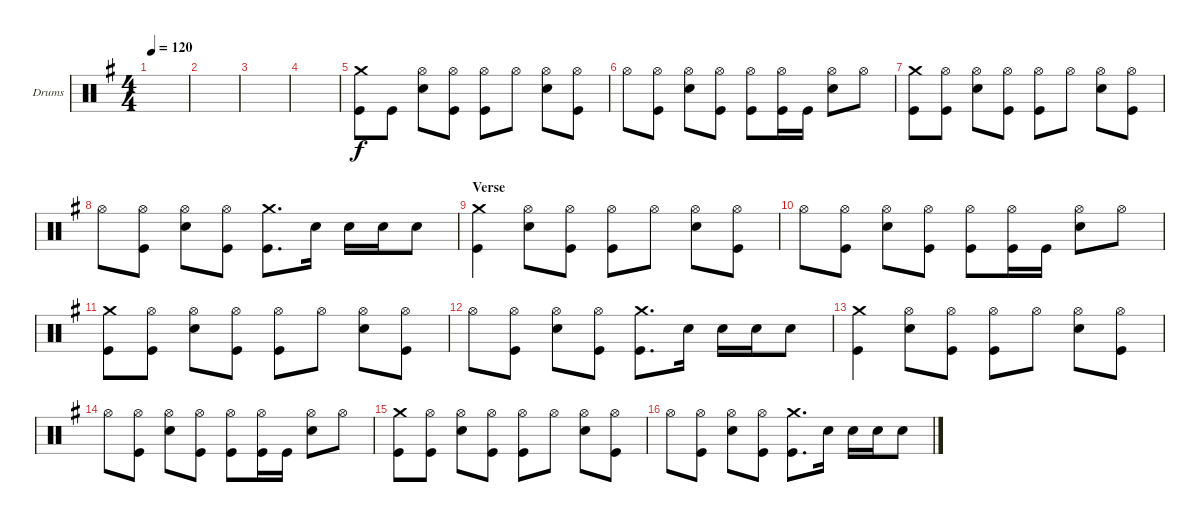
\defaultSystemsLayout 4
\bracketExtendMode groupsimilarinstruments
\firstSystemTrackNameOrientation horizontal
\otherSystemsTrackNameOrientation horizontal
\track ("Drumkit" "Drums") {instrument percussion}
\staff {score}
\articulation defaults
\ts (4 4)
\tempo 120
\clef neutral
\scale
1.07314
\ks g
|
\scale
0.92686 |
\scale
1.04288 |
\scale
0.957125 |
\scale
1.04288 ("Crash medium (hit)" "Kick (hit)").8 "Kick (hit)".8 ("Hi-Hat (open)" "Snare (hit) 2").8 ("Hi-Hat (open)" "Kick (hit)").8 ("Hi-Hat (open)" "Kick (hit)").8 "Hi-Hat (open)".8 ("Hi-Hat (open)" "Snare (hit) 2").8 ("Hi-Hat (open)" "Kick (hit)").8 |
\scale
0.957125 "Hi-Hat (open)".8 ("Hi-Hat (open)" "Kick (hit)").8 ("Hi-Hat (open)" "Snare (hit) 2").8 ("Hi-Hat (open)" "Kick (hit)").8 ("Hi-Hat (open)" "Kick (hit)").8 ("Hi-Hat (open)" "Kick (hit)").16 "Kick (hit)".16 ("Hi-Hat (open)" "Snare (hit) 2").8 "Hi-Hat (open)".8 |
\scale
1.04288 ("Crash medium (hit)" "Kick (hit)").8 ("Hi-Hat (open)" "Kick (hit)").8 ("Hi-Hat (open)" "Snare (hit) 2").8 ("Hi-Hat (open)" "Kick (hit)").8 ("Hi-Hat (open)" "Kick (hit)").8 "Hi-Hat (open)".8 ("Hi-Hat (open)" "Snare (hit) 2").8 ("Hi-Hat (open)" "Kick (hit)").8 |
\scale
0.957125 "Hi-Hat (open)".8 ("Hi-Hat (open)" "Kick (hit)").8 ("Hi-Hat (open)" "Snare (hit) 2").8 ("Hi-Hat (open)" "Kick (hit)").8 ("Crash medium (hit)" "Kick (hit)").8{d} "Snare (hit) 2".16 "Snare (hit) 2".16 "Snare (hit) 2".16 "Snare (hit) 2".8 |
\section ("" "Verse")
\scale
1.04288 ("Crash medium (hit)" "Kick (hit)").4 ("Hi-Hat (open)" "Snare (hit) 2").8 ("Hi-Hat (open)" "Kick (hit)").8 ("Hi-Hat (open)" "Kick (hit)").8 "Hi-Hat (open)".8 ("Hi-Hat (open)" "Snare (hit) 2").8 ("Hi-Hat (open)" "Kick (hit)").8 |
\scale
0.957125 "Hi-Hat (open)".8 ("Hi-Hat (open)" "Kick (hit)").8 ("Hi-Hat (open)" "Snare (hit) 2").8 ("Hi-Hat (open)" "Kick (hit)").8 ("Hi-Hat (open)" "Kick (hit)").8 ("Hi-Hat (open)" "Kick (hit)").16 "Kick (hit)".16 ("Hi-Hat (open)" "Snare (hit) 2").8 "Hi-Hat (open)".8 |
\scale
1.04288 ("Crash medium (hit)" "Kick (hit)").8 ("Hi-Hat (open)" "Kick (hit)").8 ("Hi-Hat (open)" "Snare (hit) 2").8 ("Hi-Hat (open)" "Kick (hit)").8 ("Hi-Hat (open)" "Kick (hit)").8 "Hi-Hat (open)".8 ("Hi-Hat (open)" "Snare (hit) 2").8 ("Hi-Hat (open)" "Kick (hit)").8 |
\scale
0.957125 "Hi-Hat (open)".8 ("Hi-Hat (open)" "Kick (hit)").8 ("Hi-Hat (open)" "Snare (hit) 2").8 ("Hi-Hat (open)" "Kick (hit)").8 ("Crash medium (hit)" "Kick (hit)").8{d} "Snare (hit) 2".16 "Snare (hit) 2".16 "Snare (hit) 2".16 "Snare (hit) 2".8 |
\scale
1.04288 ("Crash medium (hit)" "Kick (hit)").4 ("Hi-Hat (open)" "Snare (hit) 2").8 ("Hi-Hat (open)" "Kick (hit)").8 ("Hi-Hat (open)" "Kick (hit)").8 "Hi-Hat (open)".8 ("Hi-Hat (open)" "Snare (hit) 2").8 ("Hi-Hat (open)" "Kick (hit)").8 |
\scale
0.957125 "Hi-Hat (open)".8 ("Hi-Hat (open)" "Kick (hit)").8 ("Hi-Hat (open)" "Snare (hit) 2").8 ("Hi-Hat (open)" "Kick (hit)").8 ("Hi-Hat (open)" "Kick (hit)").8 ("Hi-Hat (open)" "Kick (hit)").16 "Kick (hit)".16 ("Hi-Hat (open)" "Snare (hit) 2").8 "Hi-Hat (open)".8 |
\scale
1.04288 ("Crash medium (hit)" "Kick (hit)").8 ("Hi-Hat (open)" "Kick (hit)").8 ("Hi-Hat (open)" "Snare (hit) 2").8 ("Hi-Hat (open)" "Kick (hit)").8 ("Hi-Hat (open)" "Kick (hit)").8 "Hi-Hat (open)".8 ("Hi-Hat (open)" "Snare (hit) 2").8 ("Hi-Hat (open)" "Kick (hit)").8 |
\scale
0.957125 "Hi-Hat (open)".8 ("Hi-Hat (open)" "Kick (hit)").8 ("Hi-Hat (open)" "Snare (hit) 2").8 ("Hi-Hat (open)" "Kick (hit)").8 ("Crash medium (hit)" "Kick (hit)").8{d} "Snare (hit) 2".16 "Snare (hit) 2".16 "Snare (hit) 2".16 "Snare (hit) 2".8
